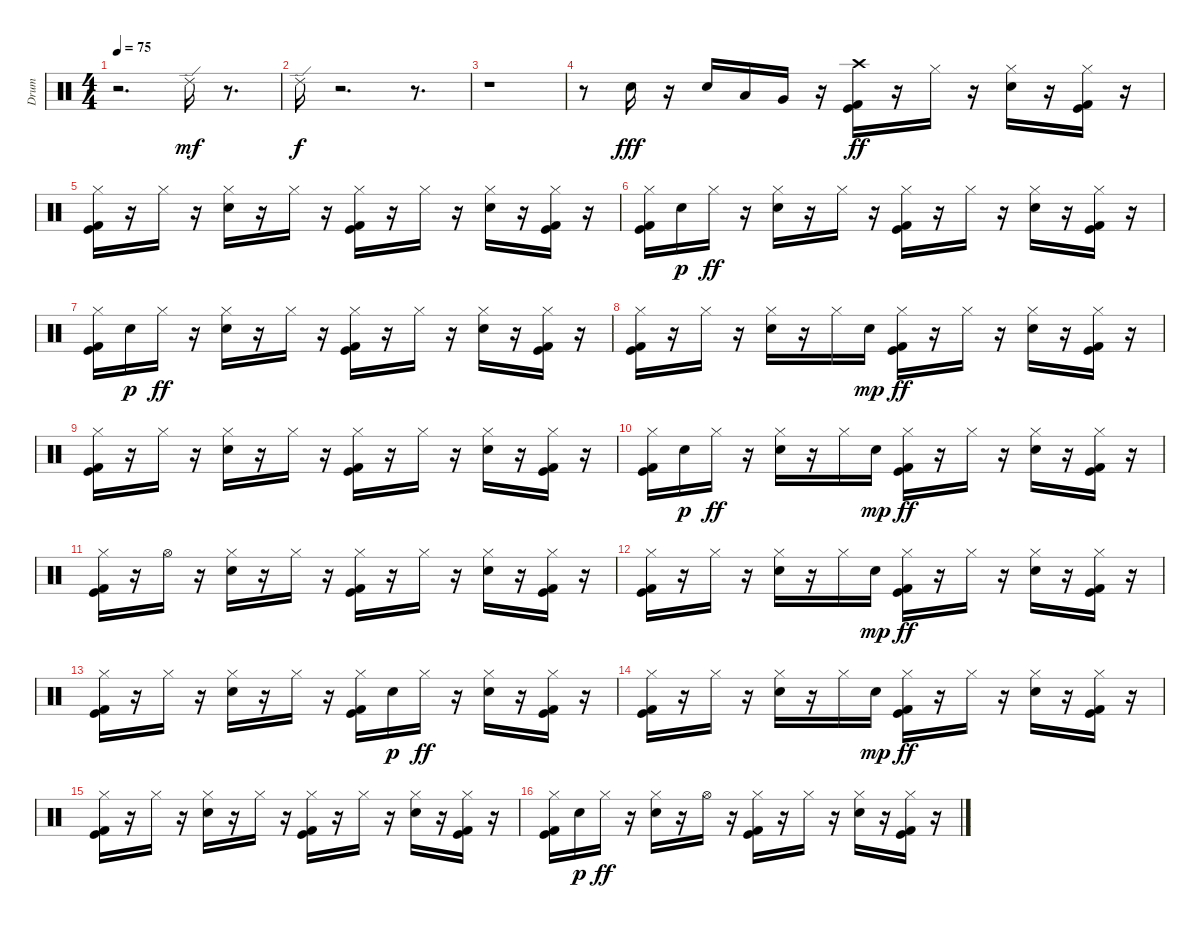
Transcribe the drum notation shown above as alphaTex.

\track ("Drum" "Drum") {instrument percussion}
\staff {score}
\articulation defaults
\ts (4 4)
\tempo 75
\clef neutral
\ks c
r.2{d dy fff} "Ride (edge) 2".16{dy mf} r.8{d} |
"Ride (edge) 2".16{dy f} r.2{d} r.8{d} |
r.1 |
r.8 "Electric Snare (hit)".16{dy fff} r.16 "Electric Snare (hit)".16 "Low Tom (hit)".16 "Very Low Tom (hit)".16 r.16 ("Crash high (hit)" "Kick (hit)" "Kick (hit) 2").16{dy ff} r.16 "Hi-Hat (closed)".16 r.16 ("Electric Snare (hit)" "Hi-Hat (closed)").16 r.16 ("Kick (hit)" "Kick (hit) 2" "Hi-Hat (closed)").16 r.16 |
("Kick (hit)" "Kick (hit) 2" "Hi-Hat (closed)").16 r.16 "Hi-Hat (closed)".16 r.16 ("Electric Snare (hit)" "Hi-Hat (closed)").16 r.16 "Hi-Hat (closed)".16 r.16 ("Kick (hit)" "Kick (hit) 2" "Hi-Hat (closed)").16 r.16 "Hi-Hat (closed)".16 r.16 ("Electric Snare (hit)" "Hi-Hat (closed)").16 r.16 ("Kick (hit)" "Kick (hit) 2" "Hi-Hat (closed)").16 r.16 |
("Kick (hit)" "Kick (hit) 2" "Hi-Hat (closed)").16 "Electric Snare (hit)".16{dy p} "Hi-Hat (closed)".16{dy ff} r.16 ("Electric Snare (hit)" "Hi-Hat (closed)").16 r.16 "Hi-Hat (closed)".16 r.16 ("Kick (hit)" "Kick (hit) 2" "Hi-Hat (closed)").16 r.16 "Hi-Hat (closed)".16 r.16 ("Electric Snare (hit)" "Hi-Hat (closed)").16 r.16 ("Kick (hit)" "Kick (hit) 2" "Hi-Hat (closed)").16 r.16 |
("Kick (hit)" "Kick (hit) 2" "Hi-Hat (closed)").16 "Electric Snare (hit)".16{dy p} "Hi-Hat (closed)".16{dy ff} r.16 ("Electric Snare (hit)" "Hi-Hat (closed)").16 r.16 "Hi-Hat (closed)".16 r.16 ("Kick (hit)" "Kick (hit) 2" "Hi-Hat (closed)").16 r.16 "Hi-Hat (closed)".16 r.16 ("Electric Snare (hit)" "Hi-Hat (closed)").16 r.16 ("Kick (hit)" "Kick (hit) 2" "Hi-Hat (closed)").16 r.16 |
("Kick (hit)" "Kick (hit) 2" "Hi-Hat (closed)").16 r.16 "Hi-Hat (closed)".16 r.16 ("Electric Snare (hit)" "Hi-Hat (closed)").16 r.16 "Hi-Hat (closed)".16 "Electric Snare (hit)".16{dy mp} ("Kick (hit)" "Kick (hit) 2" "Hi-Hat (closed)").16{dy ff} r.16 "Hi-Hat (closed)".16 r.16 ("Electric Snare (hit)" "Hi-Hat (closed)").16 r.16 ("Kick (hit)" "Kick (hit) 2" "Hi-Hat (closed)").16 r.16 |
("Kick (hit)" "Kick (hit) 2" "Hi-Hat (closed)").16 r.16 "Hi-Hat (closed)".16 r.16 ("Electric Snare (hit)" "Hi-Hat (closed)").16 r.16 "Hi-Hat (closed)".16 r.16 ("Kick (hit)" "Kick (hit) 2" "Hi-Hat (closed)").16 r.16 "Hi-Hat (closed)".16 r.16 ("Electric Snare (hit)" "Hi-Hat (closed)").16 r.16 ("Kick (hit)" "Kick (hit) 2" "Hi-Hat (closed)").16 r.16 |
("Kick (hit)" "Kick (hit) 2" "Hi-Hat (closed)").16 "Electric Snare (hit)".16{dy p} "Hi-Hat (closed)".16{dy ff} r.16 ("Electric Snare (hit)" "Hi-Hat (closed)").16 r.16 "Hi-Hat (closed)".16 "Electric Snare (hit)".16{dy mp} ("Kick (hit)" "Kick (hit) 2" "Hi-Hat (closed)").16{dy ff} r.16 "Hi-Hat (closed)".16 r.16 ("Electric Snare (hit)" "Hi-Hat (closed)").16 r.16 ("Kick (hit)" "Kick (hit) 2" "Hi-Hat (closed)").16 r.16 |
("Kick (hit)" "Kick (hit) 2" "Hi-Hat (closed)").16 r.16 "Hi-Hat (open)".16 r.16 ("Electric Snare (hit)" "Hi-Hat (closed)").16 r.16 "Hi-Hat (closed)".16 r.16 ("Kick (hit)" "Kick (hit) 2" "Hi-Hat (closed)").16 r.16 "Hi-Hat (closed)".16 r.16 ("Electric Snare (hit)" "Hi-Hat (closed)").16 r.16 ("Kick (hit)" "Kick (hit) 2" "Hi-Hat (closed)").16 r.16 |
("Kick (hit)" "Kick (hit) 2" "Hi-Hat (closed)").16 r.16 "Hi-Hat (closed)".16 r.16 ("Electric Snare (hit)" "Hi-Hat (closed)").16 r.16 "Hi-Hat (closed)".16 "Electric Snare (hit)".16{dy mp} ("Kick (hit)" "Kick (hit) 2" "Hi-Hat (closed)").16{dy ff} r.16 "Hi-Hat (closed)".16 r.16 ("Electric Snare (hit)" "Hi-Hat (closed)").16 r.16 ("Kick (hit)" "Kick (hit) 2" "Hi-Hat (closed)").16 r.16 |
("Kick (hit)" "Kick (hit) 2" "Hi-Hat (closed)").16 r.16 "Hi-Hat (closed)".16 r.16 ("Electric Snare (hit)" "Hi-Hat (closed)").16 r.16 "Hi-Hat (closed)".16 r.16 ("Kick (hit)" "Kick (hit) 2" "Hi-Hat (closed)").16 "Electric Snare (hit)".16{dy p} "Hi-Hat (closed)".16{dy ff} r.16 ("Electric Snare (hit)" "Hi-Hat (closed)").16 r.16 ("Kick (hit)" "Kick (hit) 2" "Hi-Hat (closed)").16 r.16 |
("Kick (hit)" "Kick (hit) 2" "Hi-Hat (closed)").16 r.16 "Hi-Hat (closed)".16 r.16 ("Electric Snare (hit)" "Hi-Hat (closed)").16 r.16 "Hi-Hat (closed)".16 "Electric Snare (hit)".16{dy mp} ("Kick (hit)" "Kick (hit) 2" "Hi-Hat (closed)").16{dy ff} r.16 "Hi-Hat (closed)".16 r.16 ("Electric Snare (hit)" "Hi-Hat (closed)").16 r.16 ("Kick (hit)" "Kick (hit) 2" "Hi-Hat (closed)").16 r.16 |
("Kick (hit)" "Kick (hit) 2" "Hi-Hat (closed)").16 r.16 "Hi-Hat (closed)".16 r.16 ("Electric Snare (hit)" "Hi-Hat (closed)").16 r.16 "Hi-Hat (closed)".16 r.16 ("Kick (hit)" "Kick (hit) 2" "Hi-Hat (closed)").16 r.16 "Hi-Hat (closed)".16 r.16 ("Electric Snare (hit)" "Hi-Hat (closed)").16 r.16 ("Kick (hit)" "Kick (hit) 2" "Hi-Hat (closed)").16 r.16 |
("Kick (hit)" "Kick (hit) 2" "Hi-Hat (closed)").16 "Electric Snare (hit)".16{dy p} "Hi-Hat (closed)".16{dy ff} r.16 ("Electric Snare (hit)" "Hi-Hat (closed)").16 r.16 "Hi-Hat (open)".16 r.16 ("Kick (hit)" "Kick (hit) 2" "Hi-Hat (closed)").16 r.16 "Hi-Hat (closed)".16 r.16 ("Electric Snare (hit)" "Hi-Hat (closed)").16 r.16 ("Kick (hit)" "Kick (hit) 2" "Hi-Hat (closed)").16 r.16
